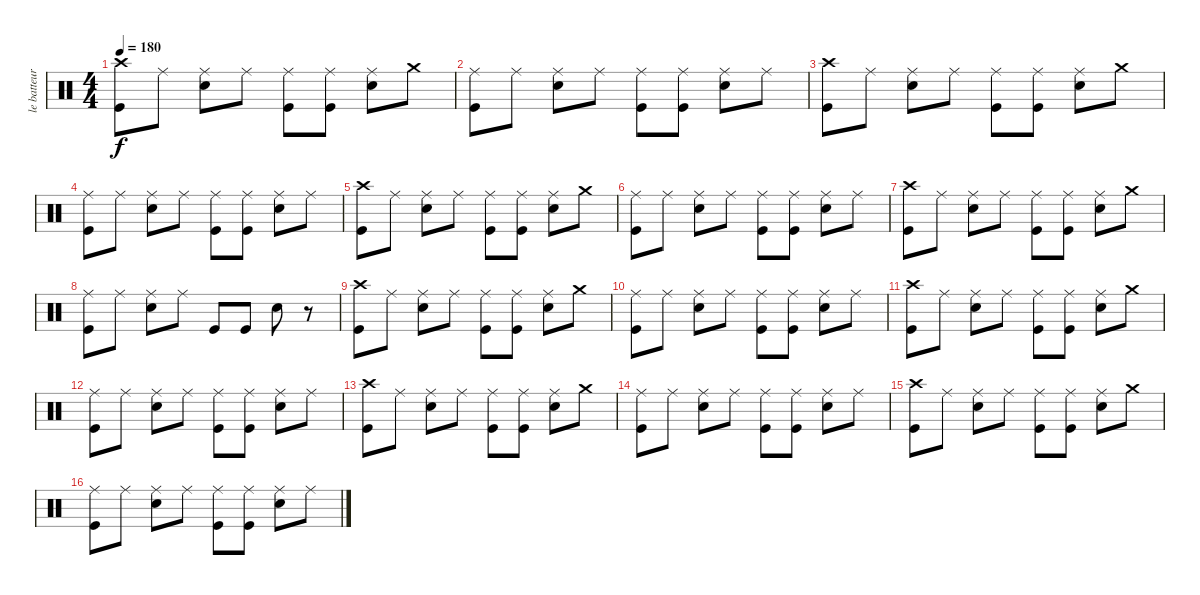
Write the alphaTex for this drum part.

\track ("le batteur" "le batteur") {instrument percussion}
\staff {score}
\articulation defaults
\ts (4 4)
\tempo 180
\clef neutral
\ks c
("Crash high (hit)" "Kick (hit)").8{dy f} "Ride (middle)".8 ("Ride (middle)" "Snare (hit) 2").8 "Ride (middle)".8 ("Ride (middle)" "Kick (hit)").8 ("Ride (middle)" "Kick (hit)").8 ("Ride (middle)" "Snare (hit) 2").8 "Crash medium (hit)".8 |
("Ride (middle)" "Kick (hit)").8 "Ride (middle)".8 ("Ride (middle)" "Snare (hit) 2").8 "Ride (middle)".8 ("Ride (middle)" "Kick (hit)").8 ("Ride (middle)" "Kick (hit)").8 ("Ride (middle)" "Snare (hit) 2").8 "Ride (middle)".8 |
("Crash high (hit)" "Kick (hit)").8 "Ride (middle)".8 ("Ride (middle)" "Snare (hit) 2").8 "Ride (middle)".8 ("Ride (middle)" "Kick (hit)").8 ("Ride (middle)" "Kick (hit)").8 ("Ride (middle)" "Snare (hit) 2").8 "Crash medium (hit)".8 |
("Ride (middle)" "Kick (hit)").8 "Ride (middle)".8 ("Ride (middle)" "Snare (hit) 2").8 "Ride (middle)".8 ("Ride (middle)" "Kick (hit)").8 ("Ride (middle)" "Kick (hit)").8 ("Ride (middle)" "Snare (hit) 2").8 "Ride (middle)".8 |
("Crash high (hit)" "Kick (hit)").8 "Ride (middle)".8 ("Ride (middle)" "Snare (hit) 2").8 "Ride (middle)".8 ("Ride (middle)" "Kick (hit)").8 ("Ride (middle)" "Kick (hit)").8 ("Ride (middle)" "Snare (hit) 2").8 "Crash medium (hit)".8 |
("Ride (middle)" "Kick (hit)").8 "Ride (middle)".8 ("Ride (middle)" "Snare (hit) 2").8 "Ride (middle)".8 ("Ride (middle)" "Kick (hit)").8 ("Ride (middle)" "Kick (hit)").8 ("Ride (middle)" "Snare (hit) 2").8 "Ride (middle)".8 |
("Crash high (hit)" "Kick (hit)").8 "Ride (middle)".8 ("Ride (middle)" "Snare (hit) 2").8 "Ride (middle)".8 ("Ride (middle)" "Kick (hit)").8 ("Ride (middle)" "Kick (hit)").8 ("Ride (middle)" "Snare (hit) 2").8 "Crash medium (hit)".8 |
("Ride (middle)" "Kick (hit)").8 "Ride (middle)".8 ("Ride (middle)" "Snare (hit) 2").8 "Ride (middle)".8 "Kick (hit)".8 "Kick (hit)".8 "Snare (hit) 2".8 r.8 |
("Crash high (hit)" "Kick (hit)").8 "Ride (middle)".8 ("Ride (middle)" "Snare (hit) 2").8 "Ride (middle)".8 ("Ride (middle)" "Kick (hit)").8 ("Ride (middle)" "Kick (hit)").8 ("Ride (middle)" "Snare (hit) 2").8 "Crash medium (hit)".8 |
("Ride (middle)" "Kick (hit)").8 "Ride (middle)".8 ("Ride (middle)" "Snare (hit) 2").8 "Ride (middle)".8 ("Ride (middle)" "Kick (hit)").8 ("Ride (middle)" "Kick (hit)").8 ("Ride (middle)" "Snare (hit) 2").8 "Ride (middle)".8 |
("Crash high (hit)" "Kick (hit)").8 "Ride (middle)".8 ("Ride (middle)" "Snare (hit) 2").8 "Ride (middle)".8 ("Ride (middle)" "Kick (hit)").8 ("Ride (middle)" "Kick (hit)").8 ("Ride (middle)" "Snare (hit) 2").8 "Crash medium (hit)".8 |
("Ride (middle)" "Kick (hit)").8 "Ride (middle)".8 ("Ride (middle)" "Snare (hit) 2").8 "Ride (middle)".8 ("Ride (middle)" "Kick (hit)").8 ("Ride (middle)" "Kick (hit)").8 ("Ride (middle)" "Snare (hit) 2").8 "Ride (middle)".8 |
("Crash high (hit)" "Kick (hit)").8 "Ride (middle)".8 ("Ride (middle)" "Snare (hit) 2").8 "Ride (middle)".8 ("Ride (middle)" "Kick (hit)").8 ("Ride (middle)" "Kick (hit)").8 ("Ride (middle)" "Snare (hit) 2").8 "Crash medium (hit)".8 |
("Ride (middle)" "Kick (hit)").8 "Ride (middle)".8 ("Ride (middle)" "Snare (hit) 2").8 "Ride (middle)".8 ("Ride (middle)" "Kick (hit)").8 ("Ride (middle)" "Kick (hit)").8 ("Ride (middle)" "Snare (hit) 2").8 "Ride (middle)".8 |
("Crash high (hit)" "Kick (hit)").8 "Ride (middle)".8 ("Ride (middle)" "Snare (hit) 2").8 "Ride (middle)".8 ("Ride (middle)" "Kick (hit)").8 ("Ride (middle)" "Kick (hit)").8 ("Ride (middle)" "Snare (hit) 2").8 "Crash medium (hit)".8 |
("Ride (middle)" "Kick (hit)").8 "Ride (middle)".8 ("Ride (middle)" "Snare (hit) 2").8 "Ride (middle)".8 ("Ride (middle)" "Kick (hit)").8 ("Ride (middle)" "Kick (hit)").8 ("Ride (middle)" "Snare (hit) 2").8 "Ride (middle)".8
